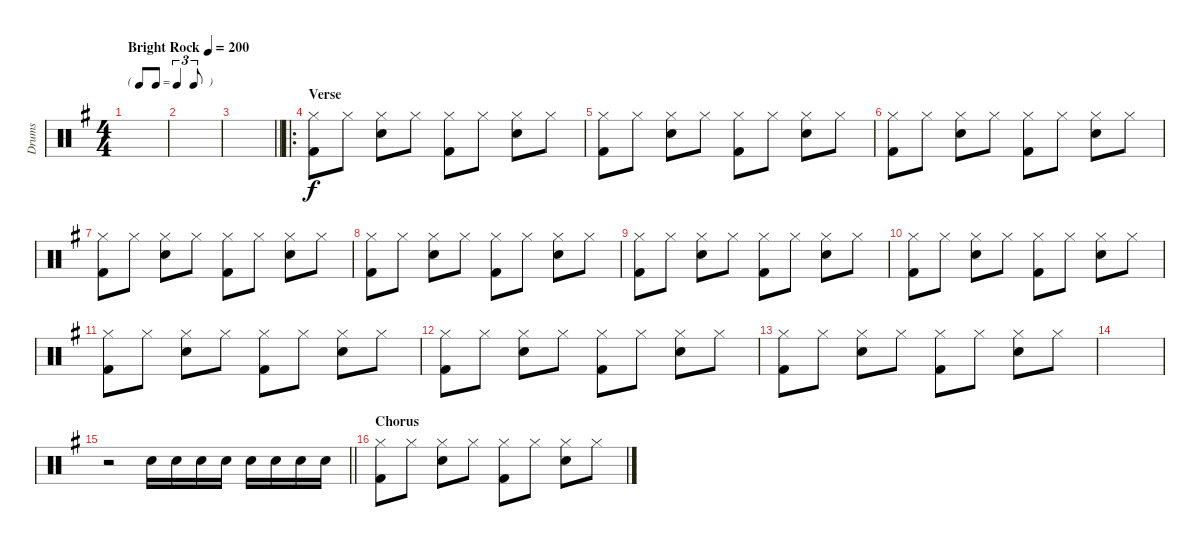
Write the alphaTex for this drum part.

\track ("Drums" "Drums") {instrument percussion}
\staff {score}
\articulation defaults
\ts (4 4)
\tf triplet8th
\tempo (200 "Bright Rock")
\clef neutral
\ks g
|
|
\barLineRight lightlight
|
\ro
\section ("" "Verse")
("Hi-Hat (closed)" "Kick (hit) 2").8 "Hi-Hat (closed)".8 ("Hi-Hat (closed)" "Snare (hit) 2").8 "Hi-Hat (closed)".8 ("Hi-Hat (closed)" "Kick (hit) 2").8 "Hi-Hat (closed)".8 ("Hi-Hat (closed)" "Snare (hit) 2").8 "Hi-Hat (closed)".8 |
("Hi-Hat (closed)" "Kick (hit) 2").8 "Hi-Hat (closed)".8 ("Hi-Hat (closed)" "Snare (hit) 2").8 "Hi-Hat (closed)".8 ("Hi-Hat (closed)" "Kick (hit) 2").8 "Hi-Hat (closed)".8 ("Hi-Hat (closed)" "Snare (hit) 2").8 "Hi-Hat (closed)".8 |
("Hi-Hat (closed)" "Kick (hit) 2").8 "Hi-Hat (closed)".8 ("Hi-Hat (closed)" "Snare (hit) 2").8 "Hi-Hat (closed)".8 ("Hi-Hat (closed)" "Kick (hit) 2").8 "Hi-Hat (closed)".8 ("Hi-Hat (closed)" "Snare (hit) 2").8 "Hi-Hat (closed)".8 |
("Hi-Hat (closed)" "Kick (hit) 2").8 "Hi-Hat (closed)".8 ("Hi-Hat (closed)" "Snare (hit) 2").8 "Hi-Hat (closed)".8 ("Hi-Hat (closed)" "Kick (hit) 2").8 "Hi-Hat (closed)".8 ("Hi-Hat (closed)" "Snare (hit) 2").8 "Hi-Hat (closed)".8 |
("Hi-Hat (closed)" "Kick (hit) 2").8 "Hi-Hat (closed)".8 ("Hi-Hat (closed)" "Snare (hit) 2").8 "Hi-Hat (closed)".8 ("Hi-Hat (closed)" "Kick (hit) 2").8 "Hi-Hat (closed)".8 ("Hi-Hat (closed)" "Snare (hit) 2").8 "Hi-Hat (closed)".8 |
("Hi-Hat (closed)" "Kick (hit) 2").8 "Hi-Hat (closed)".8 ("Hi-Hat (closed)" "Snare (hit) 2").8 "Hi-Hat (closed)".8 ("Hi-Hat (closed)" "Kick (hit) 2").8 "Hi-Hat (closed)".8 ("Hi-Hat (closed)" "Snare (hit) 2").8 "Hi-Hat (closed)".8 |
("Hi-Hat (closed)" "Kick (hit) 2").8 "Hi-Hat (closed)".8 ("Hi-Hat (closed)" "Snare (hit) 2").8 "Hi-Hat (closed)".8 ("Hi-Hat (closed)" "Kick (hit) 2").8 "Hi-Hat (closed)".8 ("Hi-Hat (closed)" "Snare (hit) 2").8 "Hi-Hat (closed)".8 |
("Hi-Hat (closed)" "Kick (hit) 2").8 "Hi-Hat (closed)".8 ("Hi-Hat (closed)" "Snare (hit) 2").8 "Hi-Hat (closed)".8 ("Hi-Hat (closed)" "Kick (hit) 2").8 "Hi-Hat (closed)".8 ("Hi-Hat (closed)" "Snare (hit) 2").8 "Hi-Hat (closed)".8 |
("Hi-Hat (closed)" "Kick (hit) 2").8 "Hi-Hat (closed)".8 ("Hi-Hat (closed)" "Snare (hit) 2").8 "Hi-Hat (closed)".8 ("Hi-Hat (closed)" "Kick (hit) 2").8 "Hi-Hat (closed)".8 ("Hi-Hat (closed)" "Snare (hit) 2").8 "Hi-Hat (closed)".8 |
("Hi-Hat (closed)" "Kick (hit) 2").8 "Hi-Hat (closed)".8 ("Hi-Hat (closed)" "Snare (hit) 2").8 "Hi-Hat (closed)".8 ("Hi-Hat (closed)" "Kick (hit) 2").8 "Hi-Hat (closed)".8 ("Hi-Hat (closed)" "Snare (hit) 2").8 "Hi-Hat (closed)".8 |
|
\barLineRight lightlight
r.2 "Snare (hit) 2".16 "Snare (hit) 2".16 "Snare (hit) 2".16 "Snare (hit) 2".16 "Snare (hit) 2".16 "Snare (hit) 2".16 "Snare (hit) 2".16 "Snare (hit) 2".16 |
\section ("" "Chorus")
("Hi-Hat (closed)" "Kick (hit) 2").8 "Hi-Hat (closed)".8 ("Hi-Hat (closed)" "Snare (hit) 2").8 "Hi-Hat (closed)".8 ("Hi-Hat (closed)" "Kick (hit) 2").8 "Hi-Hat (closed)".8 ("Hi-Hat (closed)" "Snare (hit) 2").8 "Hi-Hat (closed)".8
